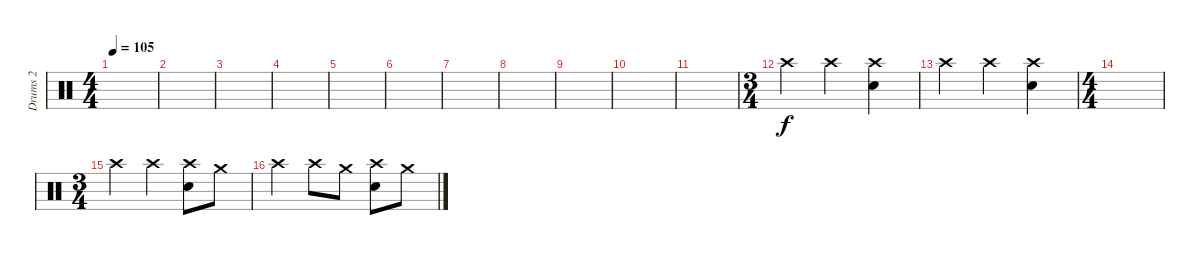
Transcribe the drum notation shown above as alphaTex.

\track ("Drums 2" "Drums 2") {instrument percussion}
\staff
\articulation defaults
\ts (4 4)
\tempo 105
\clef neutral
\ks c
|
|
|
|
|
|
|
|
|
|
|
\ts (3 4)
"Crash high (hit)".4 "Crash high (hit)".4 ("Crash high (hit)" "Electric Snare (hit)").4 |
"Crash high (hit)".4 "Crash high (hit)".4 ("Crash high (hit)" "Electric Snare (hit)").4 |
\ts (4 4)
|
\ts (3 4)
"Crash high (hit)".4 "Crash high (hit)".4 ("Crash high (hit)" "Electric Snare (hit)").8 "Crash medium (hit)".8 |
"Crash high (hit)".4 "Crash high (hit)".8 "Crash medium (hit)".8 ("Crash high (hit)" "Electric Snare (hit)").8 "Crash medium (hit)".8
